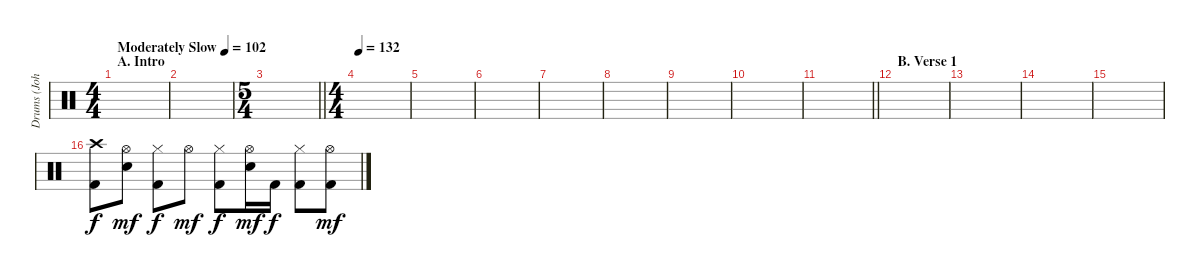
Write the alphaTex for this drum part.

\track ("Drums (John Bonham)" "Drums (Joh") {instrument percussion}
\staff {score}
\articulation defaults
\ts (4 4)
\section ("" "A. Intro")
\tempo (102 "Moderately Slow")
\clef neutral
\ks c
|
|
\ts (5 4)
\barLineRight lightlight
|
\ts (4 4)
\tempo 132
|
|
|
|
|
|
|
\barLineRight lightlight
|
\section ("" "B. Verse 1")
|
|
|
|
("Crash high (hit)" "Kick (hit) 2").8 ("Hi-Hat (open)" "Electric Snare (hit)").8{dy mf} ("Hi-Hat (closed)" "Kick (hit) 2").8{dy f} "Hi-Hat (open)".8{dy mf} ("Hi-Hat (closed)" "Kick (hit) 2").8{dy f} ("Hi-Hat (open)" "Electric Snare (hit)").16{dy mf} "Kick (hit) 2".16{dy f} ("Hi-Hat (closed)" "Kick (hit) 2").8 ("Hi-Hat (open)" "Kick (hit) 2").8{dy mf}
